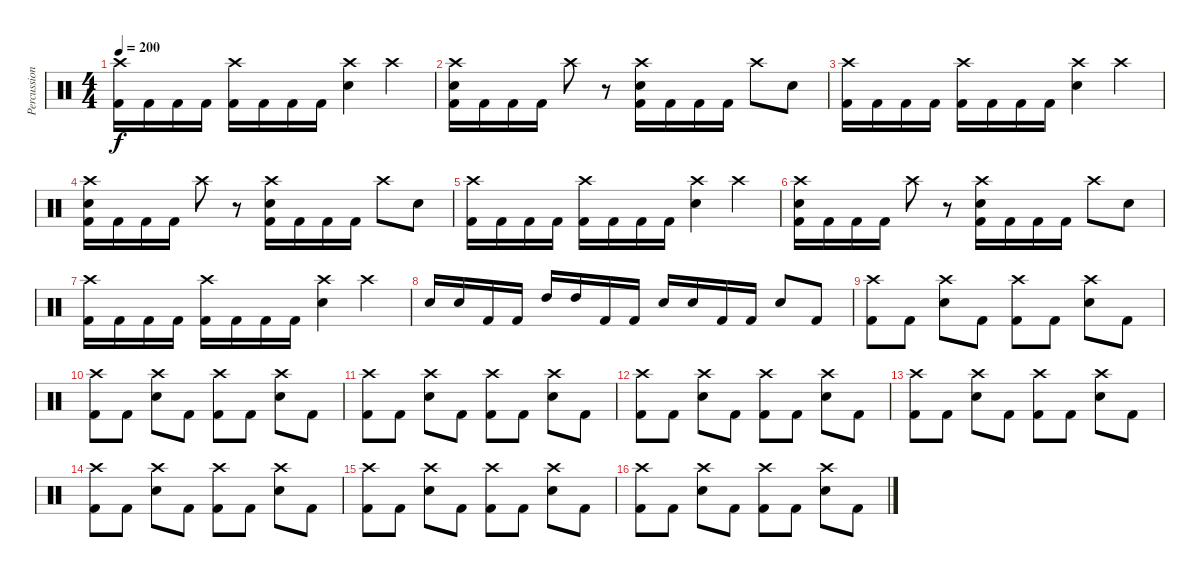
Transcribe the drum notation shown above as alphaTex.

\track ("Percussion" "Percussion") {instrument percussion}
\staff {score}
\articulation defaults
\ts (4 4)
\tempo 200
\clef neutral
\ks c
("Crash high (hit)" "Kick (hit) 2").16{dy f} "Kick (hit) 2".16 "Kick (hit) 2".16 "Kick (hit) 2".16 ("Crash high (hit)" "Kick (hit) 2").16 "Kick (hit) 2".16 "Kick (hit) 2".16 "Kick (hit) 2".16 ("Crash high (hit)" "Electric Snare (hit)").4 "Crash high (hit)".4 |
("Crash high (hit)" "Electric Snare (hit)" "Kick (hit) 2").16 "Kick (hit) 2".16 "Kick (hit) 2".16 "Kick (hit) 2".16 "Crash high (hit)".8 r.8 ("Crash high (hit)" "Electric Snare (hit)" "Kick (hit) 2").16 "Kick (hit) 2".16 "Kick (hit) 2".16 "Kick (hit) 2".16 "Crash high (hit)".8 "Electric Snare (hit)".8 |
("Crash high (hit)" "Kick (hit) 2").16 "Kick (hit) 2".16 "Kick (hit) 2".16 "Kick (hit) 2".16 ("Crash high (hit)" "Kick (hit) 2").16 "Kick (hit) 2".16 "Kick (hit) 2".16 "Kick (hit) 2".16 ("Crash high (hit)" "Electric Snare (hit)").4 "Crash high (hit)".4 |
("Crash high (hit)" "Electric Snare (hit)" "Kick (hit) 2").16 "Kick (hit) 2".16 "Kick (hit) 2".16 "Kick (hit) 2".16 "Crash high (hit)".8 r.8 ("Crash high (hit)" "Electric Snare (hit)" "Kick (hit) 2").16 "Kick (hit) 2".16 "Kick (hit) 2".16 "Kick (hit) 2".16 "Crash high (hit)".8 "Electric Snare (hit)".8 |
("Crash high (hit)" "Kick (hit) 2").16 "Kick (hit) 2".16 "Kick (hit) 2".16 "Kick (hit) 2".16 ("Crash high (hit)" "Kick (hit) 2").16 "Kick (hit) 2".16 "Kick (hit) 2".16 "Kick (hit) 2".16 ("Crash high (hit)" "Electric Snare (hit)").4 "Crash high (hit)".4 |
("Crash high (hit)" "Electric Snare (hit)" "Kick (hit) 2").16 "Kick (hit) 2".16 "Kick (hit) 2".16 "Kick (hit) 2".16 "Crash high (hit)".8 r.8 ("Crash high (hit)" "Electric Snare (hit)" "Kick (hit) 2").16 "Kick (hit) 2".16 "Kick (hit) 2".16 "Kick (hit) 2".16 "Crash high (hit)".8 "Electric Snare (hit)".8 |
("Crash high (hit)" "Kick (hit) 2").16 "Kick (hit) 2".16 "Kick (hit) 2".16 "Kick (hit) 2".16 ("Crash high (hit)" "Kick (hit) 2").16 "Kick (hit) 2".16 "Kick (hit) 2".16 "Kick (hit) 2".16 ("Crash high (hit)" "Electric Snare (hit)").4 "Crash high (hit)".4 |
"Electric Snare (hit)".16 "Electric Snare (hit)".16 "Kick (hit) 2".16 "Kick (hit) 2".16 "High Tom (hit)".16 "High Tom (hit)".16 "Kick (hit) 2".16 "Kick (hit) 2".16 "Electric Snare (hit)".16 "Electric Snare (hit)".16 "Kick (hit) 2".16 "Kick (hit) 2".16 "Electric Snare (hit)".8 "Kick (hit) 2".8 |
("Crash high (hit)" "Kick (hit) 2").8 "Kick (hit) 2".8 ("Crash high (hit)" "Electric Snare (hit)").8 "Kick (hit) 2".8 ("Crash high (hit)" "Kick (hit) 2").8 "Kick (hit) 2".8 ("Crash high (hit)" "Electric Snare (hit)").8 "Kick (hit) 2".8 |
("Crash high (hit)" "Kick (hit) 2").8 "Kick (hit) 2".8 ("Crash high (hit)" "Electric Snare (hit)").8 "Kick (hit) 2".8 ("Crash high (hit)" "Kick (hit) 2").8 "Kick (hit) 2".8 ("Crash high (hit)" "Electric Snare (hit)").8 "Kick (hit) 2".8 |
("Crash high (hit)" "Kick (hit) 2").8 "Kick (hit) 2".8 ("Crash high (hit)" "Electric Snare (hit)").8 "Kick (hit) 2".8 ("Crash high (hit)" "Kick (hit) 2").8 "Kick (hit) 2".8 ("Crash high (hit)" "Electric Snare (hit)").8 "Kick (hit) 2".8 |
("Crash high (hit)" "Kick (hit) 2").8 "Kick (hit) 2".8 ("Crash high (hit)" "Electric Snare (hit)").8 "Kick (hit) 2".8 ("Crash high (hit)" "Kick (hit) 2").8 "Kick (hit) 2".8 ("Crash high (hit)" "Electric Snare (hit)").8 "Kick (hit) 2".8 |
("Crash high (hit)" "Kick (hit) 2").8 "Kick (hit) 2".8 ("Crash high (hit)" "Electric Snare (hit)").8 "Kick (hit) 2".8 ("Crash high (hit)" "Kick (hit) 2").8 "Kick (hit) 2".8 ("Crash high (hit)" "Electric Snare (hit)").8 "Kick (hit) 2".8 |
("Crash high (hit)" "Kick (hit) 2").8 "Kick (hit) 2".8 ("Crash high (hit)" "Electric Snare (hit)").8 "Kick (hit) 2".8 ("Crash high (hit)" "Kick (hit) 2").8 "Kick (hit) 2".8 ("Crash high (hit)" "Electric Snare (hit)").8 "Kick (hit) 2".8 |
("Crash high (hit)" "Kick (hit) 2").8 "Kick (hit) 2".8 ("Crash high (hit)" "Electric Snare (hit)").8 "Kick (hit) 2".8 ("Crash high (hit)" "Kick (hit) 2").8 "Kick (hit) 2".8 ("Crash high (hit)" "Electric Snare (hit)").8 "Kick (hit) 2".8 |
("Crash high (hit)" "Kick (hit) 2").8 "Kick (hit) 2".8 ("Crash high (hit)" "Electric Snare (hit)").8 "Kick (hit) 2".8 ("Crash high (hit)" "Kick (hit) 2").8 "Kick (hit) 2".8 ("Crash high (hit)" "Electric Snare (hit)").8 "Kick (hit) 2".8
